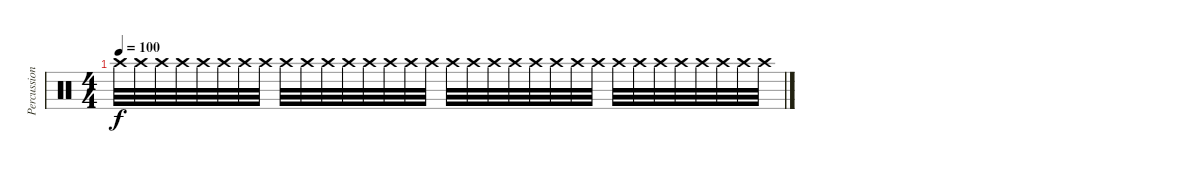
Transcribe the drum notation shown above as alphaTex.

\track ("Percussions" "Percussion") {instrument percussion}
\staff {score}
\articulation defaults
\ts (4 4)
\tempo 100
\clef neutral
\ks c "Crash high (hit)".32{dy f} "Crash high (hit)".32 "Crash high (hit)".32 "Crash high (hit)".32 "Crash high (hit)".32 "Crash high (hit)".32 "Crash high (hit)".32 "Crash high (hit)".32 "Crash high (hit)".32 "Crash high (hit)".32 "Crash high (hit)".32 "Crash high (hit)".32 "Crash high (hit)".32 "Crash high (hit)".32 "Crash high (hit)".32 "Crash high (hit)".32 "Crash high (hit)".32 "Crash high (hit)".32 "Crash high (hit)".32 "Crash high (hit)".32 "Crash high (hit)".32 "Crash high (hit)".32 "Crash high (hit)".32 "Crash high (hit)".32 "Crash high (hit)".32 "Crash high (hit)".32 "Crash high (hit)".32 "Crash high (hit)".32 "Crash high (hit)".32 "Crash high (hit)".32 "Crash high (hit)".32 "Crash high (hit)".32
